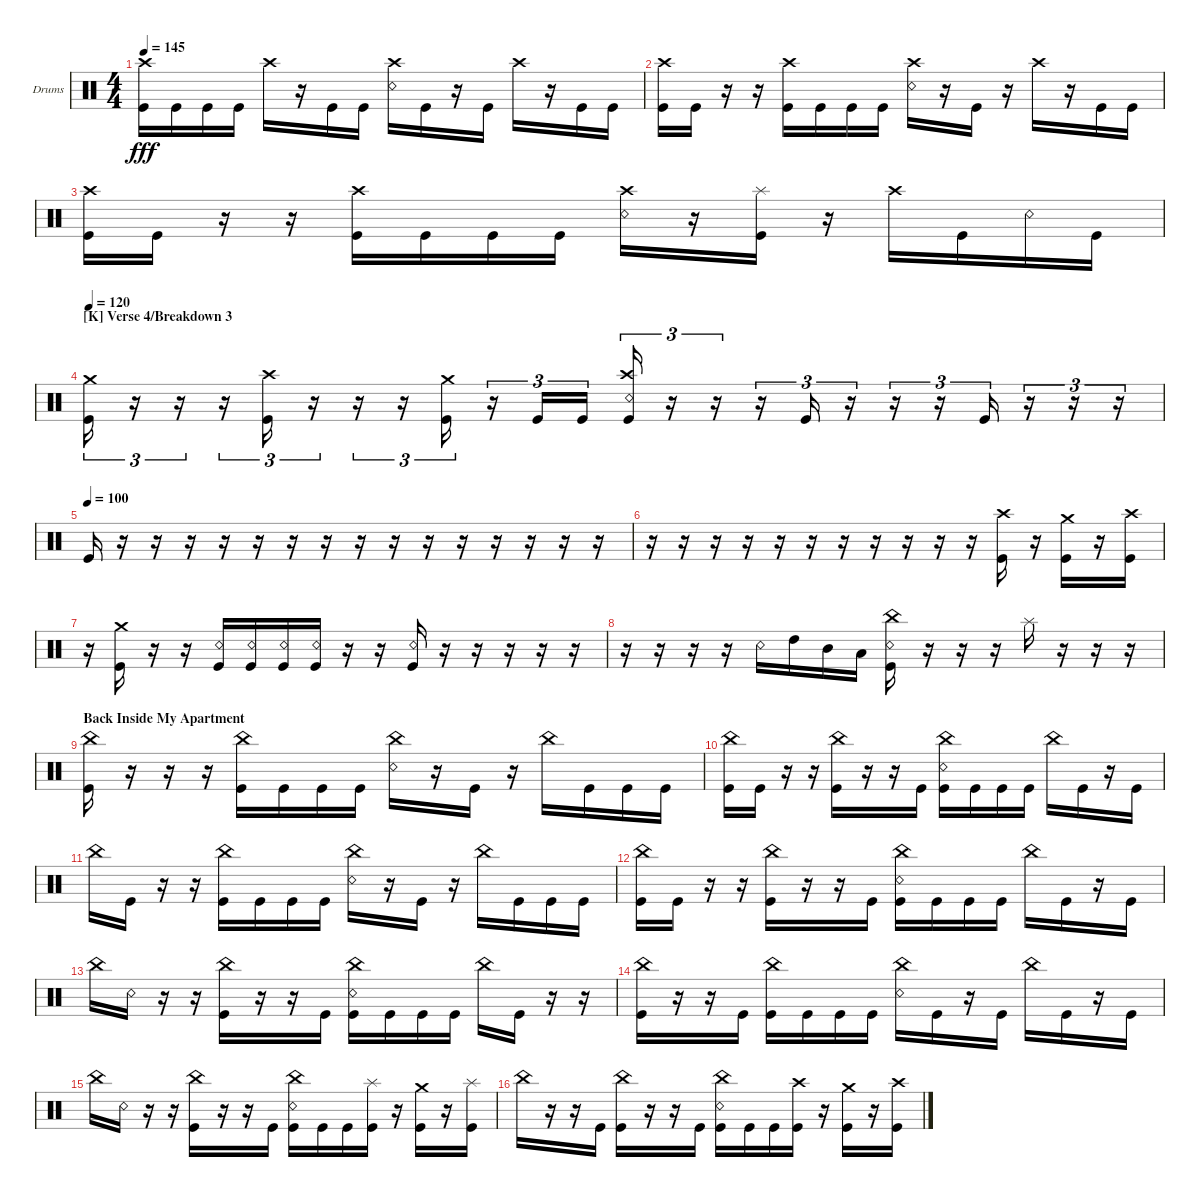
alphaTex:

\defaultSystemsLayout 4
\bracketExtendMode groupsimilarinstruments
\firstSystemTrackNameOrientation horizontal
\otherSystemsTrackNameOrientation horizontal
\track ("Chris Khoury" "Drums") {instrument percussion}
\staff {score}
\articulation defaults
\ts (4 4)
\tempo 145
\clef neutral
\ks c
("Kick (hit)" "Crash high (hit)").16{dy fff} "Kick (hit)".16 "Kick (hit)".16 "Kick (hit)".16 "Crash high (hit)".16 r.16 "Kick (hit)".16 "Kick (hit)".16 ("Snare (rim shot)" "Crash high (hit)").16 "Kick (hit)".16 r.16 "Kick (hit)".16 "Crash high (hit)".16 r.16 "Kick (hit)".16 "Kick (hit)".16 |
("Crash high (hit)" "Kick (hit)").16 "Kick (hit)".16 r.16 r.16 ("Crash high (hit)" "Kick (hit)").16 "Kick (hit)".16 "Kick (hit)".16 "Kick (hit)".16 ("Crash high (hit)" "Snare (rim shot)").16 r.16 "Kick (hit)".16 r.16 "Crash high (hit)".16 r.16 "Kick (hit)".16 "Kick (hit)".16 |
("Crash high (hit)" "Kick (hit)").16 "Kick (hit)".16 r.16 r.16 ("Crash high (hit)" "Kick (hit)").16 "Kick (hit)".16 "Kick (hit)".16 "Kick (hit)".16 ("Crash high (hit)" "Snare (rim shot)").16 r.16 ("Kick (hit)" "Splash (hit)").16 r.16 "Crash high (hit)".16 "Kick (hit)".16 "Snare (rim shot)".16 "Kick (hit)".16 |
\section ("K" "Verse 4/Breakdown 3")
\tempo 120
("Kick (hit)" "Crash medium (hit)").16{tu (3 2)} r.16{tu (3 2)} r.16{tu (3 2)} r.16{tu (3 2)} ("Kick (hit)" "Crash high (hit)").16{tu (3 2)} r.16{tu (3 2)} r.16{tu (3 2)} r.16{tu (3 2)} ("Kick (hit)" "Crash medium (hit)").16{tu (3 2)} r.16{tu (3 2)} "Kick (hit)".16{tu (3 2)} "Kick (hit)".16{tu (3 2)} ("Kick (hit)" "Crash high (hit)" "Snare (rim shot)").16{tu (3 2)} r.16{tu (3 2)} r.16{tu (3 2)} r.16{tu (3 2)} "Kick (hit)".16{tu (3 2)} r.16{tu (3 2)} r.16{tu (3 2)} r.16{tu (3 2)} "Kick (hit)".16{tu (3 2)} r.16{tu (3 2)} r.16{tu (3 2)} r.16{tu (3 2)} |
\tempo (100)
"Kick (hit)".16 r.16 r.16 r.16 r.16 r.16 r.16 r.16 r.16 r.16 r.16 r.16 r.16 r.16 r.16 r.16 |
r.16 r.16 r.16 r.16 r.16 r.16 r.16 r.16 r.16 r.16 r.16 ("Crash high (hit)" "Kick (hit)").16 r.16 ("Kick (hit)" "Crash medium (hit)").16 r.16 ("Kick (hit)" "Crash high (hit)").16 |
r.16 ("Kick (hit)" "Crash medium (hit)").16 r.16 r.16 ("Snare (rim shot)" "Kick (hit)").16 ("Snare (rim shot)" "Kick (hit)").16 ("Snare (rim shot)" "Kick (hit)").16 ("Snare (rim shot)" "Kick (hit)").16 r.16 r.16 ("Kick (hit)" "Snare (rim shot)").16 r.16 r.16 r.16 r.16 r.16 |
r.16 r.16 r.16 r.16 "Snare (rim shot)".16 "High Tom (hit)".16 "Mid Tom (hit)".16 "Low Tom (hit)".16 ("Kick (hit)" "Snare (rim shot)" "China (hit)").16 r.16 r.16 r.16 "Splash (hit)".16 r.16 r.16 r.16 |
\section ("" "Back Inside My Apartment")
("China (hit)" "Kick (hit)").16 r.16 r.16 r.16 ("China (hit)" "Kick (hit)").16 "Kick (hit)".16 "Kick (hit)".16 "Kick (hit)".16 ("China (hit)" "Snare (rim shot)").16 r.16 "Kick (hit)".16 r.16 "China (hit)".16 "Kick (hit)".16 "Kick (hit)".16 "Kick (hit)".16 |
("China (hit)" "Kick (hit)").16 "Kick (hit)".16 r.16 r.16 ("China (hit)" "Kick (hit)").16 r.16 r.16 "Kick (hit)".16 ("China (hit)" "Kick (hit)" "Snare (rim shot)").16 "Kick (hit)".16 "Kick (hit)".16 "Kick (hit)".16 "China (hit)".16 "Kick (hit)".16 r.16 "Kick (hit)".16 |
"China (hit)".16 "Kick (hit)".16 r.16 r.16 ("China (hit)" "Kick (hit)").16 "Kick (hit)".16 "Kick (hit)".16 "Kick (hit)".16 ("China (hit)" "Snare (rim shot)").16 r.16 "Kick (hit)".16 r.16 "China (hit)".16 "Kick (hit)".16 "Kick (hit)".16 "Kick (hit)".16 |
("China (hit)" "Kick (hit)").16 "Kick (hit)".16 r.16 r.16 ("China (hit)" "Kick (hit)").16 r.16 r.16 "Kick (hit)".16 ("China (hit)" "Snare (rim shot)" "Kick (hit)").16 "Kick (hit)".16 "Kick (hit)".16 "Kick (hit)".16 "China (hit)".16 "Kick (hit)".16 r.16 "Kick (hit)".16 |
"China (hit)".16 "Snare (rim shot)".16 r.16 r.16 ("China (hit)" "Kick (hit)").16 r.16 r.16 "Kick (hit)".16 ("Kick (hit)" "China (hit)" "Snare (rim shot)").16 "Kick (hit)".16 "Kick (hit)".16 "Kick (hit)".16 "China (hit)".16 "Kick (hit)".16 r.16 r.16 |
("China (hit)" "Kick (hit)").16 r.16 r.16 "Kick (hit)".16 ("China (hit)" "Kick (hit)").16 "Kick (hit)".16 "Kick (hit)".16 "Kick (hit)".16 ("China (hit)" "Snare (rim shot)").16 "Kick (hit)".16 r.16 "Kick (hit)".16 "China (hit)".16 "Kick (hit)".16 r.16 "Kick (hit)".16 |
"China (hit)".16 "Snare (rim shot)".16 r.16 r.16 ("China (hit)" "Kick (hit)").16 r.16 r.16 "Kick (hit)".16 ("China (hit)" "Snare (rim shot)" "Kick (hit)").16 "Kick (hit)".16 "Kick (hit)".16 ("Kick (hit)" "Splash (hit)").16 r.16 ("Kick (hit)" "Crash medium (hit)").16 r.16 ("Kick (hit)" "Splash (hit)").16 |
"China (hit)".16 r.16 r.16 "Kick (hit)".16 ("China (hit)" "Kick (hit)").16 r.16 r.16 "Kick (hit)".16 ("China (hit)" "Kick (hit)" "Snare (rim shot)").16 "Kick (hit)".16 "Kick (hit)".16 ("Kick (hit)" "Crash high (hit)").16 r.16 ("Kick (hit)" "Crash medium (hit)").16 r.16 ("Kick (hit)" "Crash high (hit)").16
